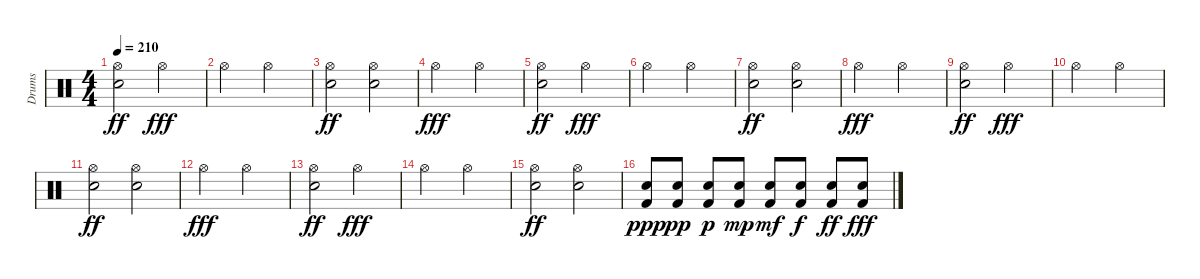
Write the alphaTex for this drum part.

\track ("Drums" "Drums") {instrument percussion}
\staff {score}
\articulation defaults
\ts (4 4)
\tempo 210
\clef neutral
\ks c
("Hi-Hat (open)" "Electric Snare (hit)").2{dy ff} "Hi-Hat (open)".2{dy fff} |
"Hi-Hat (open)".2 "Hi-Hat (open)".2 |
("Hi-Hat (open)" "Electric Snare (hit)").2{dy ff} ("Hi-Hat (open)" "Electric Snare (hit)").2 |
"Hi-Hat (open)".2{dy fff} "Hi-Hat (open)".2 |
("Hi-Hat (open)" "Electric Snare (hit)").2{dy ff} "Hi-Hat (open)".2{dy fff} |
"Hi-Hat (open)".2 "Hi-Hat (open)".2 |
("Hi-Hat (open)" "Electric Snare (hit)").2{dy ff} ("Hi-Hat (open)" "Electric Snare (hit)").2 |
"Hi-Hat (open)".2{dy fff} "Hi-Hat (open)".2 |
("Hi-Hat (open)" "Electric Snare (hit)").2{dy ff} "Hi-Hat (open)".2{dy fff} |
"Hi-Hat (open)".2 "Hi-Hat (open)".2 |
("Hi-Hat (open)" "Electric Snare (hit)").2{dy ff} ("Hi-Hat (open)" "Electric Snare (hit)").2 |
"Hi-Hat (open)".2{dy fff} "Hi-Hat (open)".2 |
("Hi-Hat (open)" "Electric Snare (hit)").2{dy ff} "Hi-Hat (open)".2{dy fff} |
"Hi-Hat (open)".2 "Hi-Hat (open)".2 |
("Hi-Hat (open)" "Electric Snare (hit)").2{dy ff} ("Hi-Hat (open)" "Electric Snare (hit)").2 |
("Electric Snare (hit)" "Kick (hit) 2").8{dy ppp} ("Electric Snare (hit)" "Kick (hit) 2").8{dy pp} ("Electric Snare (hit)" "Kick (hit) 2").8{dy p} ("Electric Snare (hit)" "Kick (hit) 2").8{dy mp} ("Electric Snare (hit)" "Kick (hit) 2").8{dy mf} ("Electric Snare (hit)" "Kick (hit) 2").8{dy f} ("Electric Snare (hit)" "Kick (hit) 2").8{dy ff} ("Electric Snare (hit)" "Kick (hit) 2").8{dy fff}
